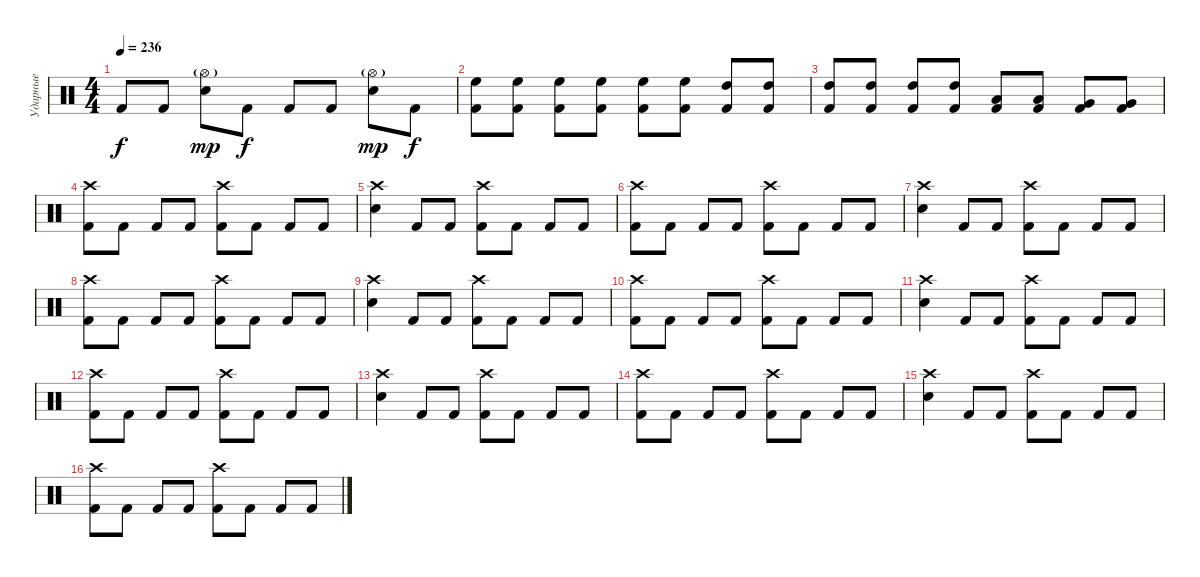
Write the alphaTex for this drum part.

\track ("Ударные" "Ударные") {instrument percussion}
\staff {score}
\articulation defaults
\ts (4 4)
\tempo 236
\clef neutral
\ks c "Kick (hit) 2".8{dy f} "Kick (hit) 2".8
("Hi-Hat (open)"{g} "Electric Snare (hit)").8{dy mp} "Kick (hit) 2".8{dy f} "Kick (hit) 2".8 "Kick (hit) 2".8 ("Hi-Hat (open)"{g} "Electric Snare (hit)").8{dy mp} "Kick (hit) 2".8{dy f} |
("High Floor Tom (hit)" "Kick (hit) 2").8 ("High Floor Tom (hit)" "Kick (hit) 2").8 ("High Floor Tom (hit)" "Kick (hit) 2").8 ("High Floor Tom (hit)" "Kick (hit) 2").8 ("High Floor Tom (hit)" "Kick (hit) 2").8 ("High Floor Tom (hit)" "Kick (hit) 2").8 ("High Tom (hit)" "Kick (hit) 2").8 ("High Tom (hit)" "Kick (hit) 2").8 |
("High Tom (hit)" "Kick (hit) 2").8 ("High Tom (hit)" "Kick (hit) 2").8 ("High Tom (hit)" "Kick (hit) 2").8 ("High Tom (hit)" "Kick (hit) 2").8 ("Low Tom (hit)" "Kick (hit) 2").8 ("Low Tom (hit)" "Kick (hit) 2").8 ("Very Low Tom (hit)" "Kick (hit) 2").8 ("Very Low Tom (hit)" "Kick (hit) 2").8 |
("Crash high (hit)" "Kick (hit) 2").8 "Kick (hit) 2".8 "Kick (hit) 2".8 "Kick (hit) 2".8 ("Crash high (hit)" "Kick (hit) 2").8 "Kick (hit) 2".8 "Kick (hit) 2".8 "Kick (hit) 2".8 |
("Crash high (hit)" "Electric Snare (hit)").4 "Kick (hit) 2".8 "Kick (hit) 2".8 ("Crash high (hit)" "Kick (hit) 2").8 "Kick (hit) 2".8 "Kick (hit) 2".8 "Kick (hit) 2".8 |
("Crash high (hit)" "Kick (hit) 2").8 "Kick (hit) 2".8 "Kick (hit) 2".8 "Kick (hit) 2".8 ("Crash high (hit)" "Kick (hit) 2").8 "Kick (hit) 2".8 "Kick (hit) 2".8 "Kick (hit) 2".8 |
("Crash high (hit)" "Electric Snare (hit)").4 "Kick (hit) 2".8 "Kick (hit) 2".8 ("Crash high (hit)" "Kick (hit) 2").8 "Kick (hit) 2".8 "Kick (hit) 2".8 "Kick (hit) 2".8 |
("Crash high (hit)" "Kick (hit) 2").8 "Kick (hit) 2".8 "Kick (hit) 2".8 "Kick (hit) 2".8 ("Crash high (hit)" "Kick (hit) 2").8 "Kick (hit) 2".8 "Kick (hit) 2".8 "Kick (hit) 2".8 |
("Crash high (hit)" "Electric Snare (hit)").4 "Kick (hit) 2".8 "Kick (hit) 2".8 ("Crash high (hit)" "Kick (hit) 2").8 "Kick (hit) 2".8 "Kick (hit) 2".8 "Kick (hit) 2".8 |
("Crash high (hit)" "Kick (hit) 2").8 "Kick (hit) 2".8 "Kick (hit) 2".8 "Kick (hit) 2".8 ("Crash high (hit)" "Kick (hit) 2").8 "Kick (hit) 2".8 "Kick (hit) 2".8 "Kick (hit) 2".8 |
("Crash high (hit)" "Electric Snare (hit)").4 "Kick (hit) 2".8 "Kick (hit) 2".8 ("Crash high (hit)" "Kick (hit) 2").8 "Kick (hit) 2".8 "Kick (hit) 2".8 "Kick (hit) 2".8 |
("Crash high (hit)" "Kick (hit) 2").8 "Kick (hit) 2".8 "Kick (hit) 2".8 "Kick (hit) 2".8 ("Crash high (hit)" "Kick (hit) 2").8 "Kick (hit) 2".8 "Kick (hit) 2".8 "Kick (hit) 2".8 |
("Crash high (hit)" "Electric Snare (hit)").4 "Kick (hit) 2".8 "Kick (hit) 2".8 ("Crash high (hit)" "Kick (hit) 2").8 "Kick (hit) 2".8 "Kick (hit) 2".8 "Kick (hit) 2".8 |
("Crash high (hit)" "Kick (hit) 2").8 "Kick (hit) 2".8 "Kick (hit) 2".8 "Kick (hit) 2".8 ("Crash high (hit)" "Kick (hit) 2").8 "Kick (hit) 2".8 "Kick (hit) 2".8 "Kick (hit) 2".8 |
("Crash high (hit)" "Electric Snare (hit)").4 "Kick (hit) 2".8 "Kick (hit) 2".8 ("Crash high (hit)" "Kick (hit) 2").8 "Kick (hit) 2".8 "Kick (hit) 2".8 "Kick (hit) 2".8 |
("Crash high (hit)" "Kick (hit) 2").8 "Kick (hit) 2".8 "Kick (hit) 2".8 "Kick (hit) 2".8 ("Crash high (hit)" "Kick (hit) 2").8 "Kick (hit) 2".8 "Kick (hit) 2".8 "Kick (hit) 2".8
